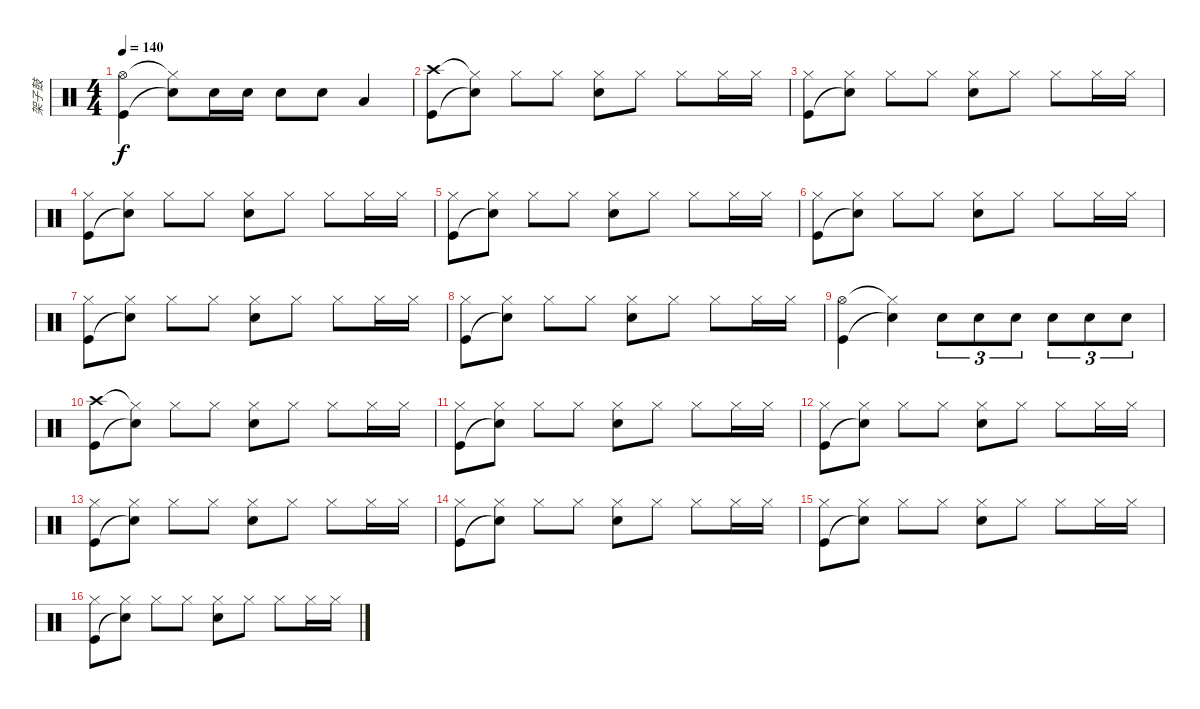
\track ("架子鼓" "架子鼓") {instrument percussion}
\staff {score}
\articulation defaults
\ts (4 4)
\tempo 140
\clef neutral
\ks c
("Hi-Hat (open)" "Kick (hit)").4{dy f} ("Hi-Hat (closed)"{t} "Snare (hit)"{t}).8 "Snare (hit) 2".16 "Snare (hit) 2".16 "Snare (hit) 2".8 "Snare (hit) 2".8 "Low Tom (hit)".4 |
("Crash high (hit)" "Kick (hit)").8 ("Hi-Hat (closed)"{t} "Snare (hit)"{t}).8 "Hi-Hat (closed)".8 "Hi-Hat (closed)".8 ("Hi-Hat (closed)" "Snare (hit) 2").8 "Hi-Hat (closed)".8 "Hi-Hat (closed)".8 "Hi-Hat (closed)".16 "Hi-Hat (closed)".16 |
("Hi-Hat (closed)" "Kick (hit)").8 ("Hi-Hat (closed)" "Snare (hit)"{t}).8 "Hi-Hat (closed)".8 "Hi-Hat (closed)".8 ("Hi-Hat (closed)" "Snare (hit) 2").8 "Hi-Hat (closed)".8 "Hi-Hat (closed)".8 "Hi-Hat (closed)".16 "Hi-Hat (closed)".16 |
("Hi-Hat (closed)" "Kick (hit)").8 ("Hi-Hat (closed)" "Snare (hit)"{t}).8 "Hi-Hat (closed)".8 "Hi-Hat (closed)".8 ("Hi-Hat (closed)" "Snare (hit) 2").8 "Hi-Hat (closed)".8 "Hi-Hat (closed)".8 "Hi-Hat (closed)".16 "Hi-Hat (closed)".16 |
("Hi-Hat (closed)" "Kick (hit)").8 ("Hi-Hat (closed)" "Snare (hit)"{t}).8 "Hi-Hat (closed)".8 "Hi-Hat (closed)".8 ("Hi-Hat (closed)" "Snare (hit) 2").8 "Hi-Hat (closed)".8 "Hi-Hat (closed)".8 "Hi-Hat (closed)".16 "Hi-Hat (closed)".16 |
("Hi-Hat (closed)" "Kick (hit)").8 ("Hi-Hat (closed)" "Snare (hit)"{t}).8 "Hi-Hat (closed)".8 "Hi-Hat (closed)".8 ("Hi-Hat (closed)" "Snare (hit) 2").8 "Hi-Hat (closed)".8 "Hi-Hat (closed)".8 "Hi-Hat (closed)".16 "Hi-Hat (closed)".16 |
("Hi-Hat (closed)" "Kick (hit)").8 ("Hi-Hat (closed)" "Snare (hit)"{t}).8 "Hi-Hat (closed)".8 "Hi-Hat (closed)".8 ("Hi-Hat (closed)" "Snare (hit) 2").8 "Hi-Hat (closed)".8 "Hi-Hat (closed)".8 "Hi-Hat (closed)".16 "Hi-Hat (closed)".16 |
("Hi-Hat (closed)" "Kick (hit)").8 ("Hi-Hat (closed)" "Snare (hit)"{t}).8 "Hi-Hat (closed)".8 "Hi-Hat (closed)".8 ("Hi-Hat (closed)" "Snare (hit) 2").8 "Hi-Hat (closed)".8 "Hi-Hat (closed)".8 "Hi-Hat (closed)".16 "Hi-Hat (closed)".16 |
("Hi-Hat (open)" "Kick (hit)").4 ("Hi-Hat (closed)"{t} "Snare (hit)"{t}).4 "Snare (hit) 2".8{tu (3 2)} "Snare (hit) 2".8{tu (3 2)} "Snare (hit) 2".8{tu (3 2)} "Snare (hit) 2".8{tu (3 2)} "Snare (hit) 2".8{tu (3 2)} "Snare (hit) 2".8{tu (3 2)} |
("Crash high (hit)" "Kick (hit)").8 ("Hi-Hat (closed)"{t} "Snare (hit)"{t}).8 "Hi-Hat (closed)".8 "Hi-Hat (closed)".8 ("Hi-Hat (closed)" "Snare (hit) 2").8 "Hi-Hat (closed)".8 "Hi-Hat (closed)".8 "Hi-Hat (closed)".16 "Hi-Hat (closed)".16 |
("Hi-Hat (closed)" "Kick (hit)").8 ("Hi-Hat (closed)" "Snare (hit)"{t}).8 "Hi-Hat (closed)".8 "Hi-Hat (closed)".8 ("Hi-Hat (closed)" "Snare (hit) 2").8 "Hi-Hat (closed)".8 "Hi-Hat (closed)".8 "Hi-Hat (closed)".16 "Hi-Hat (closed)".16 |
("Hi-Hat (closed)" "Kick (hit)").8 ("Hi-Hat (closed)" "Snare (hit)"{t}).8 "Hi-Hat (closed)".8 "Hi-Hat (closed)".8 ("Hi-Hat (closed)" "Snare (hit) 2").8 "Hi-Hat (closed)".8 "Hi-Hat (closed)".8 "Hi-Hat (closed)".16 "Hi-Hat (closed)".16 |
("Hi-Hat (closed)" "Kick (hit)").8 ("Hi-Hat (closed)" "Snare (hit)"{t}).8 "Hi-Hat (closed)".8 "Hi-Hat (closed)".8 ("Hi-Hat (closed)" "Snare (hit) 2").8 "Hi-Hat (closed)".8 "Hi-Hat (closed)".8 "Hi-Hat (closed)".16 "Hi-Hat (closed)".16 |
("Hi-Hat (closed)" "Kick (hit)").8 ("Hi-Hat (closed)" "Snare (hit)"{t}).8 "Hi-Hat (closed)".8 "Hi-Hat (closed)".8 ("Hi-Hat (closed)" "Snare (hit) 2").8 "Hi-Hat (closed)".8 "Hi-Hat (closed)".8 "Hi-Hat (closed)".16 "Hi-Hat (closed)".16 |
("Hi-Hat (closed)" "Kick (hit)").8 ("Hi-Hat (closed)" "Snare (hit)"{t}).8 "Hi-Hat (closed)".8 "Hi-Hat (closed)".8 ("Hi-Hat (closed)" "Snare (hit) 2").8 "Hi-Hat (closed)".8 "Hi-Hat (closed)".8 "Hi-Hat (closed)".16 "Hi-Hat (closed)".16 |
("Hi-Hat (closed)" "Kick (hit)").8 ("Hi-Hat (closed)" "Snare (hit)"{t}).8 "Hi-Hat (closed)".8 "Hi-Hat (closed)".8 ("Hi-Hat (closed)" "Snare (hit) 2").8 "Hi-Hat (closed)".8 "Hi-Hat (closed)".8 "Hi-Hat (closed)".16 "Hi-Hat (closed)".16
